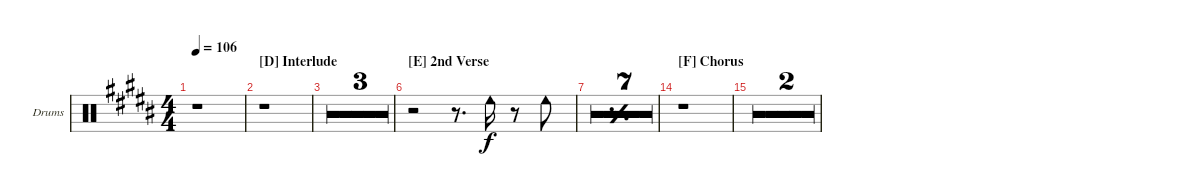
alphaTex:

\defaultSystemsLayout 4
\bracketExtendMode groupsimilarinstruments
\firstSystemTrackNameOrientation horizontal
\otherSystemsTrackNameOrientation horizontal
\track ("Cowbell" "Drums") {multiBarRest instrument percussion}
\staff {score}
\articulation defaults
\ts (4 4)
\tempo 106
\clef neutral
\ks b
r.1{dy f} |
\section ("D" "Interlude")
r.1 |
r.1 |
r.1 |
r.1 |
\section ("E" "2nd Verse")
r.2 r.8{d} "Cowbell low (hit)".16 r.8 "Cowbell low (hit)".8 |
\simile simple
|
|
|
\simile none
|
r.1 |
r.1 |
r.1 |
\section ("F" "Chorus")
r.1 |
r.1 |
r.1
